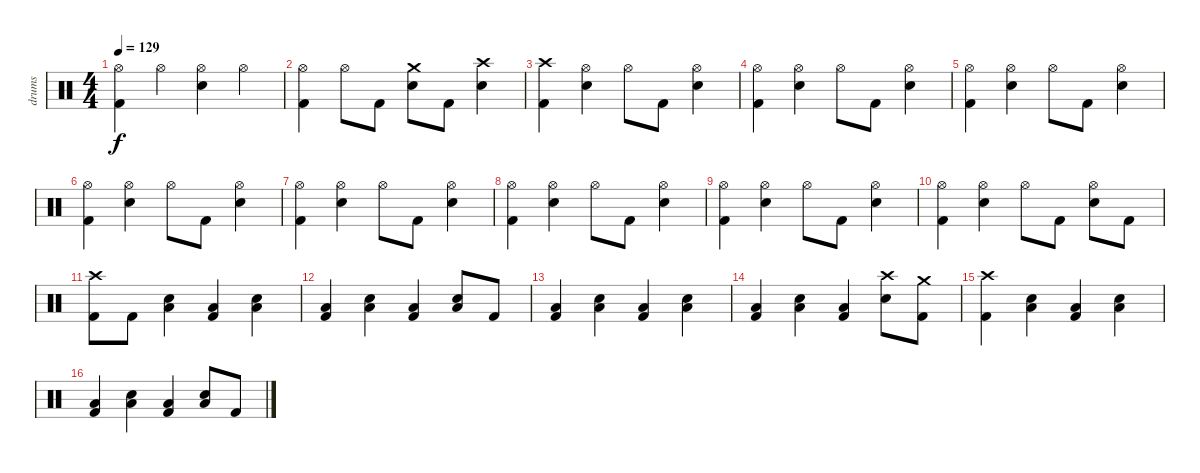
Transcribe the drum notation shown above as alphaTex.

\track ("drums" "drums") {instrument percussion}
\staff {score}
\articulation defaults
\ts (4 4)
\tempo 129
\clef neutral
\ks c
("Kick (hit) 2" "Hi-Hat (open)").4{dy f} "Hi-Hat (open)".4 ("Hi-Hat (open)" "Snare (hit) 2").4 "Hi-Hat (open)".4 |
("Kick (hit) 2" "Hi-Hat (open)").4 "Hi-Hat (open)".8 "Kick (hit) 2".8 ("Crash medium (hit)" "Snare (hit) 2").8 "Kick (hit) 2".8 ("Crash high (hit)" "Snare (hit) 2").4 |
("Kick (hit) 2" "Crash high (hit)").4 ("Hi-Hat (open)" "Snare (hit) 2").4 "Hi-Hat (open)".8 "Kick (hit) 2".8 ("Hi-Hat (open)" "Snare (hit) 2").4 |
("Kick (hit) 2" "Hi-Hat (open)").4 ("Hi-Hat (open)" "Snare (hit) 2").4 "Hi-Hat (open)".8 "Kick (hit) 2".8 ("Hi-Hat (open)" "Snare (hit) 2").4 |
("Kick (hit) 2" "Hi-Hat (open)").4 ("Hi-Hat (open)" "Snare (hit) 2").4 "Hi-Hat (open)".8 "Kick (hit) 2".8 ("Hi-Hat (open)" "Snare (hit) 2").4 |
("Kick (hit) 2" "Hi-Hat (open)").4 ("Hi-Hat (open)" "Snare (hit) 2").4 "Hi-Hat (open)".8 "Kick (hit) 2".8 ("Hi-Hat (open)" "Snare (hit) 2").4 |
("Kick (hit) 2" "Hi-Hat (open)").4 ("Hi-Hat (open)" "Snare (hit) 2").4 "Hi-Hat (open)".8 "Kick (hit) 2".8 ("Hi-Hat (open)" "Snare (hit) 2").4 |
("Kick (hit) 2" "Hi-Hat (open)").4 ("Hi-Hat (open)" "Snare (hit) 2").4 "Hi-Hat (open)".8 "Kick (hit) 2".8 ("Hi-Hat (open)" "Snare (hit) 2").4 |
("Kick (hit) 2" "Hi-Hat (open)").4 ("Hi-Hat (open)" "Snare (hit) 2").4 "Hi-Hat (open)".8 "Kick (hit) 2".8 ("Hi-Hat (open)" "Snare (hit) 2").4 |
("Kick (hit) 2" "Hi-Hat (open)").4 ("Hi-Hat (open)" "Snare (hit) 2").4 "Hi-Hat (open)".8 "Kick (hit) 2".8 ("Hi-Hat (open)" "Snare (hit) 2").8 "Kick (hit) 2".8 |
("Kick (hit) 2" "Crash high (hit)").8 "Kick (hit) 2".8 ("Low Tom (hit)" "Snare (hit) 2").4 ("Kick (hit) 2" "Low Tom (hit)").4 ("Low Tom (hit)" "Snare (hit) 2").4 |
("Kick (hit) 2" "Low Tom (hit)").4 ("Low Tom (hit)" "Snare (hit) 2").4 ("Kick (hit) 2" "Low Tom (hit)").4 ("Low Tom (hit)" "Snare (hit) 2").8 "Kick (hit) 2".8 |
("Kick (hit) 2" "Low Tom (hit)").4 ("Low Tom (hit)" "Snare (hit) 2").4 ("Kick (hit) 2" "Low Tom (hit)").4 ("Low Tom (hit)" "Snare (hit) 2").4 |
("Kick (hit) 2" "Low Tom (hit)").4 ("Low Tom (hit)" "Snare (hit) 2").4 ("Kick (hit) 2" "Low Tom (hit)").4 ("Crash high (hit)" "Snare (hit) 2").8 ("Kick (hit) 2" "Crash medium (hit)").8 |
("Kick (hit) 2" "Crash high (hit)").4 ("Low Tom (hit)" "Snare (hit) 2").4 ("Kick (hit) 2" "Low Tom (hit)").4 ("Low Tom (hit)" "Snare (hit) 2").4 |
("Kick (hit) 2" "Low Tom (hit)").4 ("Low Tom (hit)" "Snare (hit) 2").4 ("Kick (hit) 2" "Low Tom (hit)").4 ("Low Tom (hit)" "Snare (hit) 2").8 "Kick (hit) 2".8
